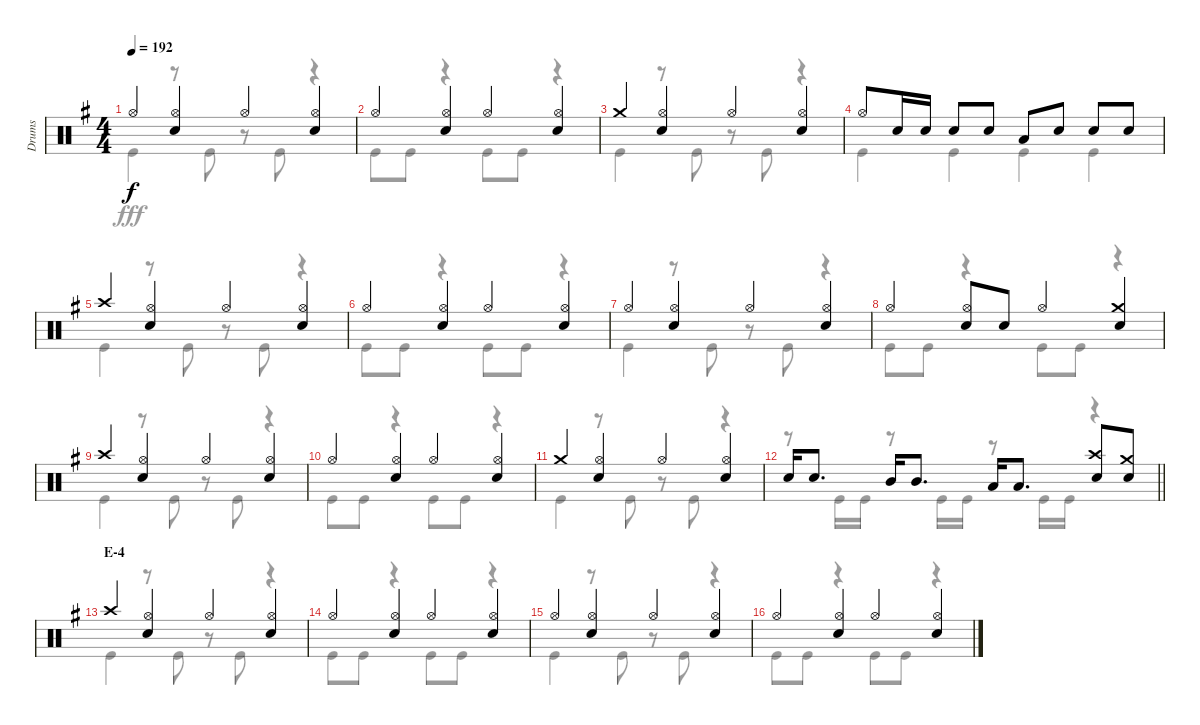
\track ("Drums" "Drums") {instrument percussion}
\staff {score}
\articulation defaults
\voice
\ts (4 4)
\tempo 192
\clef neutral
\ks g "Hi-Hat (open)".4{dy f}
("Hi-Hat (open)" "Snare (hit) 2").4 "Hi-Hat (open)".4 ("Hi-Hat (open)" "Snare (hit) 2").4 |
"Hi-Hat (open)".4 ("Hi-Hat (open)" "Snare (hit) 2").4 "Hi-Hat (open)".4 ("Hi-Hat (open)" "Snare (hit) 2").4 |
"Crash medium (hit)".4 ("Hi-Hat (open)" "Snare (hit) 2").4 "Hi-Hat (open)".4 ("Hi-Hat (open)" "Snare (hit) 2").4 |
"Hi-Hat (open)".8 "Snare (hit) 2".16 "Snare (hit) 2".16 "Snare (hit) 2".8 "Snare (hit) 2".8 "Low Tom (hit)".8 "Snare (hit) 2".8 "Snare (hit) 2".8 "Snare (hit) 2".8 |
"Crash high (hit)".4 ("Hi-Hat (open)" "Snare (hit) 2").4 "Hi-Hat (open)".4 ("Hi-Hat (open)" "Snare (hit) 2").4 |
"Hi-Hat (open)".4 ("Hi-Hat (open)" "Snare (hit) 2").4 "Hi-Hat (open)".4 ("Hi-Hat (open)" "Snare (hit) 2").4 |
"Hi-Hat (open)".4 ("Hi-Hat (open)" "Snare (hit) 2").4 "Hi-Hat (open)".4 ("Hi-Hat (open)" "Snare (hit) 2").4 |
"Hi-Hat (open)".4 ("Hi-Hat (open)" "Snare (hit) 2").8 "Snare (hit) 2".8 "Hi-Hat (open)".4 ("Crash medium (hit)" "Snare (hit) 2").4 |
"Crash high (hit)".4 ("Hi-Hat (open)" "Snare (hit) 2").4 "Hi-Hat (open)".4 ("Hi-Hat (open)" "Snare (hit) 2").4 |
"Hi-Hat (open)".4 ("Hi-Hat (open)" "Snare (hit) 2").4 "Hi-Hat (open)".4 ("Hi-Hat (open)" "Snare (hit) 2").4 |
"Crash medium (hit)".4 ("Hi-Hat (open)" "Snare (hit) 2").4 "Hi-Hat (open)".4 ("Hi-Hat (open)" "Snare (hit) 2").4 |
\barLineRight lightlight "Snare (hit) 2".16 "Snare (hit) 2".8{d} "Mid Tom (hit)".16 "Mid Tom (hit)".8{d} "Low Tom (hit)".16 "Low Tom (hit)".8{d}
("Crash high (hit)" "Snare (hit) 2").8 ("Crash medium (hit)" "Snare (hit) 2").8 |
\section ("" "E-4")
"Crash high (hit)".4 ("Hi-Hat (open)" "Snare (hit) 2").4 "Hi-Hat (open)".4 ("Hi-Hat (open)" "Snare (hit) 2").4 |
"Hi-Hat (open)".4 ("Hi-Hat (open)" "Snare (hit) 2").4 "Hi-Hat (open)".4 ("Hi-Hat (open)" "Snare (hit) 2").4 |
"Hi-Hat (open)".4 ("Hi-Hat (open)" "Snare (hit) 2").4 "Hi-Hat (open)".4 ("Hi-Hat (open)" "Snare (hit) 2").4 |
"Hi-Hat (open)".4 ("Hi-Hat (open)" "Snare (hit) 2").4 "Hi-Hat (open)".4 ("Hi-Hat (open)" "Snare (hit) 2").4
\voice
\clef neutral
\ottava regular
\simile none
\ks g "Kick (hit)".4{dy fff}
r.8 "Kick (hit)".8 r.8 "Kick (hit)".8 r.4 |
"Kick (hit)".8 "Kick (hit)".8 r.4 "Kick (hit)".8 "Kick (hit)".8 r.4 |
"Kick (hit)".4 r.8 "Kick (hit)".8 r.8 "Kick (hit)".8 r.4 |
"Kick (hit)".4 "Kick (hit)".4 "Kick (hit)".4 "Kick (hit)".4 |
"Kick (hit)".4 r.8 "Kick (hit)".8 r.8 "Kick (hit)".8 r.4 |
"Kick (hit)".8 "Kick (hit)".8 r.4 "Kick (hit)".8 "Kick (hit)".8 r.4 |
"Kick (hit)".4 r.8 "Kick (hit)".8 r.8 "Kick (hit)".8 r.4 |
"Kick (hit)".8 "Kick (hit)".8 r.4 "Kick (hit)".8 "Kick (hit)".8 r.4 |
"Kick (hit)".4 r.8 "Kick (hit)".8 r.8 "Kick (hit)".8 r.4 |
"Kick (hit)".8 "Kick (hit)".8 r.4 "Kick (hit)".8 "Kick (hit)".8 r.4 |
"Kick (hit)".4 r.8 "Kick (hit)".8 r.8 "Kick (hit)".8 r.4 |
\barLineRight lightlight
r.8 "Kick (hit)".16 "Kick (hit)".16 r.8 "Kick (hit)".16 "Kick (hit)".16 r.8 "Kick (hit)".16 "Kick (hit)".16 r.4 |
"Kick (hit)".4 r.8 "Kick (hit)".8 r.8 "Kick (hit)".8 r.4 |
"Kick (hit)".8 "Kick (hit)".8 r.4 "Kick (hit)".8 "Kick (hit)".8 r.4 |
"Kick (hit)".4 r.8 "Kick (hit)".8 r.8 "Kick (hit)".8 r.4 |
"Kick (hit)".8 "Kick (hit)".8 r.4 "Kick (hit)".8 "Kick (hit)".8 r.4
